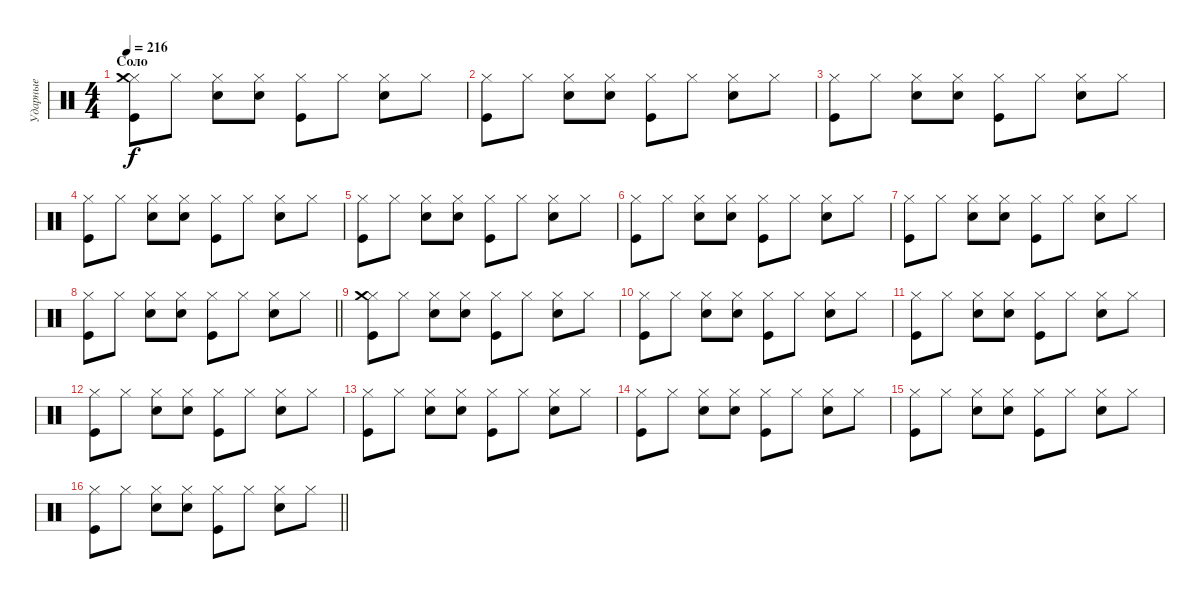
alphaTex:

\track ("Ударные" "Ударные") {instrument percussion}
\staff {score}
\articulation defaults
\ts (4 4)
\section ("" "Соло")
\tempo 216
\clef neutral
\ks c
("Hi-Hat (closed)" "Kick (hit)" "Crash medium (hit)").8{dy f} "Hi-Hat (closed)".8 ("Hi-Hat (closed)" "Snare (hit) 2").8 ("Hi-Hat (closed)" "Snare (hit) 2").8 ("Hi-Hat (closed)" "Kick (hit)").8 "Hi-Hat (closed)".8 ("Hi-Hat (closed)" "Snare (hit) 2").8 "Hi-Hat (closed)".8 |
("Hi-Hat (closed)" "Kick (hit)").8 "Hi-Hat (closed)".8 ("Hi-Hat (closed)" "Snare (hit) 2").8 ("Hi-Hat (closed)" "Snare (hit) 2").8 ("Hi-Hat (closed)" "Kick (hit)").8 "Hi-Hat (closed)".8 ("Hi-Hat (closed)" "Snare (hit) 2").8 "Hi-Hat (closed)".8 |
("Hi-Hat (closed)" "Kick (hit)").8 "Hi-Hat (closed)".8 ("Hi-Hat (closed)" "Snare (hit) 2").8 ("Hi-Hat (closed)" "Snare (hit) 2").8 ("Hi-Hat (closed)" "Kick (hit)").8 "Hi-Hat (closed)".8 ("Hi-Hat (closed)" "Snare (hit) 2").8 "Hi-Hat (closed)".8 |
("Hi-Hat (closed)" "Kick (hit)").8 "Hi-Hat (closed)".8 ("Hi-Hat (closed)" "Snare (hit) 2").8 ("Hi-Hat (closed)" "Snare (hit) 2").8 ("Hi-Hat (closed)" "Kick (hit)").8 "Hi-Hat (closed)".8 ("Hi-Hat (closed)" "Snare (hit) 2").8 "Hi-Hat (closed)".8 |
("Hi-Hat (closed)" "Kick (hit)").8 "Hi-Hat (closed)".8 ("Hi-Hat (closed)" "Snare (hit) 2").8 ("Hi-Hat (closed)" "Snare (hit) 2").8 ("Hi-Hat (closed)" "Kick (hit)").8 "Hi-Hat (closed)".8 ("Hi-Hat (closed)" "Snare (hit) 2").8 "Hi-Hat (closed)".8 |
("Hi-Hat (closed)" "Kick (hit)").8 "Hi-Hat (closed)".8 ("Hi-Hat (closed)" "Snare (hit) 2").8 ("Hi-Hat (closed)" "Snare (hit) 2").8 ("Hi-Hat (closed)" "Kick (hit)").8 "Hi-Hat (closed)".8 ("Hi-Hat (closed)" "Snare (hit) 2").8 "Hi-Hat (closed)".8 |
("Hi-Hat (closed)" "Kick (hit)").8 "Hi-Hat (closed)".8 ("Hi-Hat (closed)" "Snare (hit) 2").8 ("Hi-Hat (closed)" "Snare (hit) 2").8 ("Hi-Hat (closed)" "Kick (hit)").8 "Hi-Hat (closed)".8 ("Hi-Hat (closed)" "Snare (hit) 2").8 "Hi-Hat (closed)".8 |
\barLineRight lightlight
("Hi-Hat (closed)" "Kick (hit)").8 "Hi-Hat (closed)".8 ("Hi-Hat (closed)" "Snare (hit) 2").8 ("Hi-Hat (closed)" "Snare (hit) 2").8 ("Hi-Hat (closed)" "Kick (hit)").8 "Hi-Hat (closed)".8 ("Hi-Hat (closed)" "Snare (hit) 2").8 "Hi-Hat (closed)".8 |
("Hi-Hat (closed)" "Kick (hit)" "Crash medium (hit)").8 "Hi-Hat (closed)".8 ("Hi-Hat (closed)" "Snare (hit) 2").8 ("Hi-Hat (closed)" "Snare (hit) 2").8 ("Hi-Hat (closed)" "Kick (hit)").8 "Hi-Hat (closed)".8 ("Hi-Hat (closed)" "Snare (hit) 2").8 "Hi-Hat (closed)".8 |
("Hi-Hat (closed)" "Kick (hit)").8 "Hi-Hat (closed)".8 ("Hi-Hat (closed)" "Snare (hit) 2").8 ("Hi-Hat (closed)" "Snare (hit) 2").8 ("Hi-Hat (closed)" "Kick (hit)").8 "Hi-Hat (closed)".8 ("Hi-Hat (closed)" "Snare (hit) 2").8 "Hi-Hat (closed)".8 |
("Hi-Hat (closed)" "Kick (hit)").8 "Hi-Hat (closed)".8 ("Hi-Hat (closed)" "Snare (hit) 2").8 ("Hi-Hat (closed)" "Snare (hit) 2").8 ("Hi-Hat (closed)" "Kick (hit)").8 "Hi-Hat (closed)".8 ("Hi-Hat (closed)" "Snare (hit) 2").8 "Hi-Hat (closed)".8 |
("Hi-Hat (closed)" "Kick (hit)").8 "Hi-Hat (closed)".8 ("Hi-Hat (closed)" "Snare (hit) 2").8 ("Hi-Hat (closed)" "Snare (hit) 2").8 ("Hi-Hat (closed)" "Kick (hit)").8 "Hi-Hat (closed)".8 ("Hi-Hat (closed)" "Snare (hit) 2").8 "Hi-Hat (closed)".8 |
("Hi-Hat (closed)" "Kick (hit)").8 "Hi-Hat (closed)".8 ("Hi-Hat (closed)" "Snare (hit) 2").8 ("Hi-Hat (closed)" "Snare (hit) 2").8 ("Hi-Hat (closed)" "Kick (hit)").8 "Hi-Hat (closed)".8 ("Hi-Hat (closed)" "Snare (hit) 2").8 "Hi-Hat (closed)".8 |
("Hi-Hat (closed)" "Kick (hit)").8 "Hi-Hat (closed)".8 ("Hi-Hat (closed)" "Snare (hit) 2").8 ("Hi-Hat (closed)" "Snare (hit) 2").8 ("Hi-Hat (closed)" "Kick (hit)").8 "Hi-Hat (closed)".8 ("Hi-Hat (closed)" "Snare (hit) 2").8 "Hi-Hat (closed)".8 |
("Hi-Hat (closed)" "Kick (hit)").8 "Hi-Hat (closed)".8 ("Hi-Hat (closed)" "Snare (hit) 2").8 ("Hi-Hat (closed)" "Snare (hit) 2").8 ("Hi-Hat (closed)" "Kick (hit)").8 "Hi-Hat (closed)".8 ("Hi-Hat (closed)" "Snare (hit) 2").8 "Hi-Hat (closed)".8 |
\barLineRight lightlight
("Hi-Hat (closed)" "Kick (hit)").8 "Hi-Hat (closed)".8 ("Hi-Hat (closed)" "Snare (hit) 2").8 ("Hi-Hat (closed)" "Snare (hit) 2").8 ("Hi-Hat (closed)" "Kick (hit)").8 "Hi-Hat (closed)".8 ("Hi-Hat (closed)" "Snare (hit) 2").8 "Hi-Hat (closed)".8
